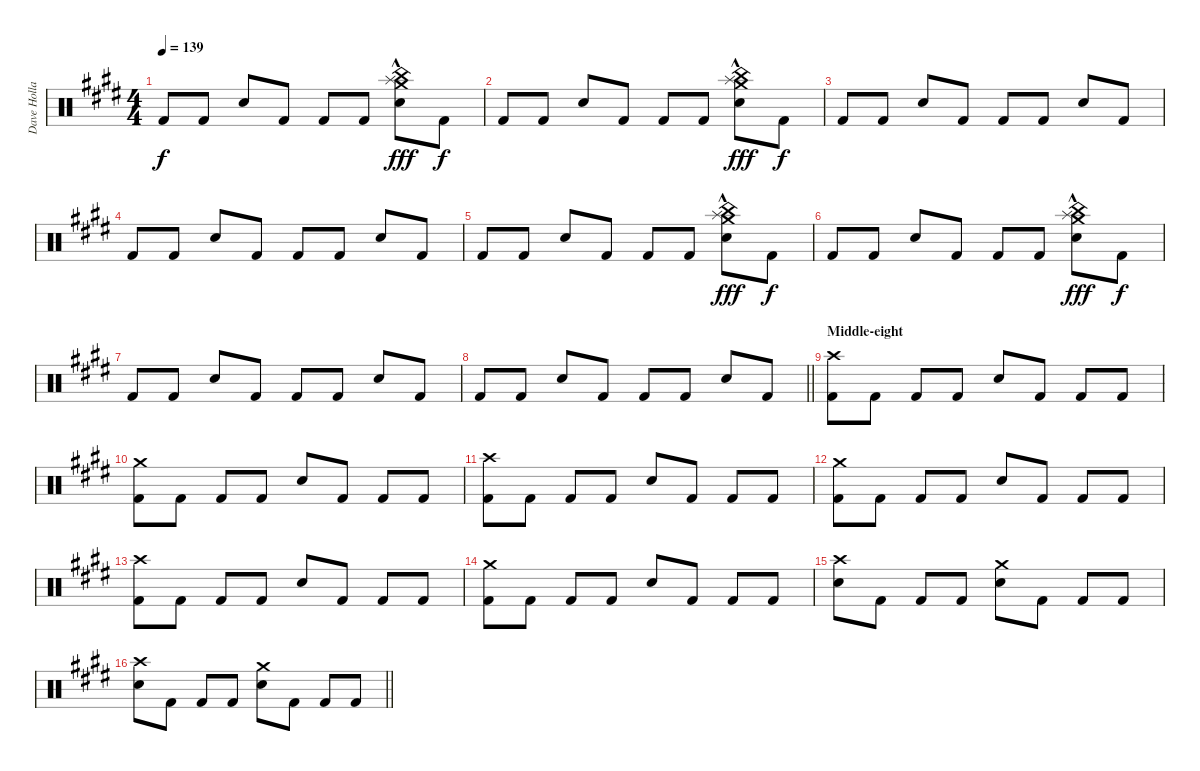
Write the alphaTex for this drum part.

\track ("Dave Holland" "Dave Holla") {instrument percussion}
\staff {score}
\articulation defaults
\ts (4 4)
\tempo 139
\clef neutral
\ks c#minor "Kick (hit) 2".8{dy f} "Kick (hit) 2".8 "Snare (hit) 2".8 "Kick (hit) 2".8 "Kick (hit) 2".8 "Kick (hit) 2".8
("Crash medium (hit)" "China (hit)" "Splash (hit)"{hac} "Snare (hit) 2").8{dy fff} "Kick (hit) 2".8{dy f} |
"Kick (hit) 2".8 "Kick (hit) 2".8 "Snare (hit) 2".8 "Kick (hit) 2".8 "Kick (hit) 2".8 "Kick (hit) 2".8 ("China (hit)" "Splash (hit)"{hac} "Crash medium (hit)" "Snare (hit) 2").8{dy fff} "Kick (hit) 2".8{dy f} |
"Kick (hit) 2".8 "Kick (hit) 2".8 "Snare (hit) 2".8 "Kick (hit) 2".8 "Kick (hit) 2".8 "Kick (hit) 2".8 "Snare (hit) 2".8 "Kick (hit) 2".8 |
"Kick (hit) 2".8 "Kick (hit) 2".8 "Snare (hit) 2".8 "Kick (hit) 2".8 "Kick (hit) 2".8 "Kick (hit) 2".8 "Snare (hit) 2".8 "Kick (hit) 2".8 |
"Kick (hit) 2".8 "Kick (hit) 2".8 "Snare (hit) 2".8 "Kick (hit) 2".8 "Kick (hit) 2".8 "Kick (hit) 2".8 ("Crash medium (hit)" "China (hit)" "Splash (hit)"{hac} "Snare (hit) 2").8{dy fff} "Kick (hit) 2".8{dy f} |
"Kick (hit) 2".8 "Kick (hit) 2".8 "Snare (hit) 2".8 "Kick (hit) 2".8 "Kick (hit) 2".8 "Kick (hit) 2".8 ("China (hit)" "Splash (hit)"{hac} "Crash medium (hit)" "Snare (hit) 2").8{dy fff} "Kick (hit) 2".8{dy f} |
"Kick (hit) 2".8 "Kick (hit) 2".8 "Snare (hit) 2".8 "Kick (hit) 2".8 "Kick (hit) 2".8 "Kick (hit) 2".8 "Snare (hit) 2".8 "Kick (hit) 2".8 |
\barLineRight lightlight "Kick (hit) 2".8 "Kick (hit) 2".8 "Snare (hit) 2".8 "Kick (hit) 2".8 "Kick (hit) 2".8 "Kick (hit) 2".8 "Snare (hit) 2".8 "Kick (hit) 2".8
|
\section ("" "Middle-eight")
("Crash high (hit)" "Kick (hit) 2").8 "Kick (hit) 2".8 "Kick (hit) 2".8 "Kick (hit) 2".8 "Snare (hit) 2".8 "Kick (hit) 2".8 "Kick (hit) 2".8 "Kick (hit) 2".8 |
("Crash medium (hit)" "Kick (hit) 2").8 "Kick (hit) 2".8 "Kick (hit) 2".8 "Kick (hit) 2".8 "Snare (hit) 2".8 "Kick (hit) 2".8 "Kick (hit) 2".8 "Kick (hit) 2".8 |
("Crash high (hit)" "Kick (hit) 2").8 "Kick (hit) 2".8 "Kick (hit) 2".8 "Kick (hit) 2".8 "Snare (hit) 2".8 "Kick (hit) 2".8 "Kick (hit) 2".8 "Kick (hit) 2".8 |
("Crash medium (hit)" "Kick (hit) 2").8 "Kick (hit) 2".8 "Kick (hit) 2".8 "Kick (hit) 2".8 "Snare (hit) 2".8 "Kick (hit) 2".8 "Kick (hit) 2".8 "Kick (hit) 2".8 |
("Crash high (hit)" "Kick (hit) 2").8 "Kick (hit) 2".8 "Kick (hit) 2".8 "Kick (hit) 2".8 "Snare (hit) 2".8 "Kick (hit) 2".8 "Kick (hit) 2".8 "Kick (hit) 2".8 |
("Crash medium (hit)" "Kick (hit) 2").8 "Kick (hit) 2".8 "Kick (hit) 2".8 "Kick (hit) 2".8 "Snare (hit) 2".8 "Kick (hit) 2".8 "Kick (hit) 2".8 "Kick (hit) 2".8 |
("Crash high (hit)" "Snare (hit) 2").8 "Kick (hit) 2".8 "Kick (hit) 2".8 "Kick (hit) 2".8 ("Crash medium (hit)" "Snare (hit) 2").8 "Kick (hit) 2".8 "Kick (hit) 2".8 "Kick (hit) 2".8 |
\barLineRight lightlight
("Crash high (hit)" "Snare (hit) 2").8 "Kick (hit) 2".8 "Kick (hit) 2".8 "Kick (hit) 2".8 ("Crash medium (hit)" "Snare (hit) 2").8 "Kick (hit) 2".8 "Kick (hit) 2".8 "Kick (hit) 2".8
